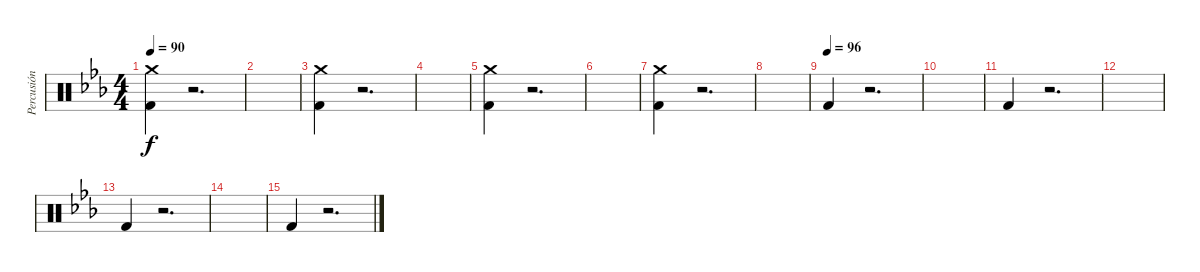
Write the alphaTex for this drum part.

\track ("Percusión" "Percusión") {instrument percussion}
\staff {score}
\articulation defaults
\ts (4 4)
\tempo 90
\clef neutral
\ks eb
("Crash medium (hit)" "Kick (hit) 2").4{dy f} r.2{d} |
|
("Crash medium (hit)" "Kick (hit) 2").4 r.2{d} |
|
("Crash medium (hit)" "Kick (hit) 2").4 r.2{d} |
|
("Crash medium (hit)" "Kick (hit) 2").4 r.2{d} |
|
\tempo (96)
"Kick (hit) 2".4 r.2{d} |
|
"Kick (hit) 2".4 r.2{d} |
|
"Kick (hit) 2".4 r.2{d} |
|
"Kick (hit) 2".4 r.2{d}
